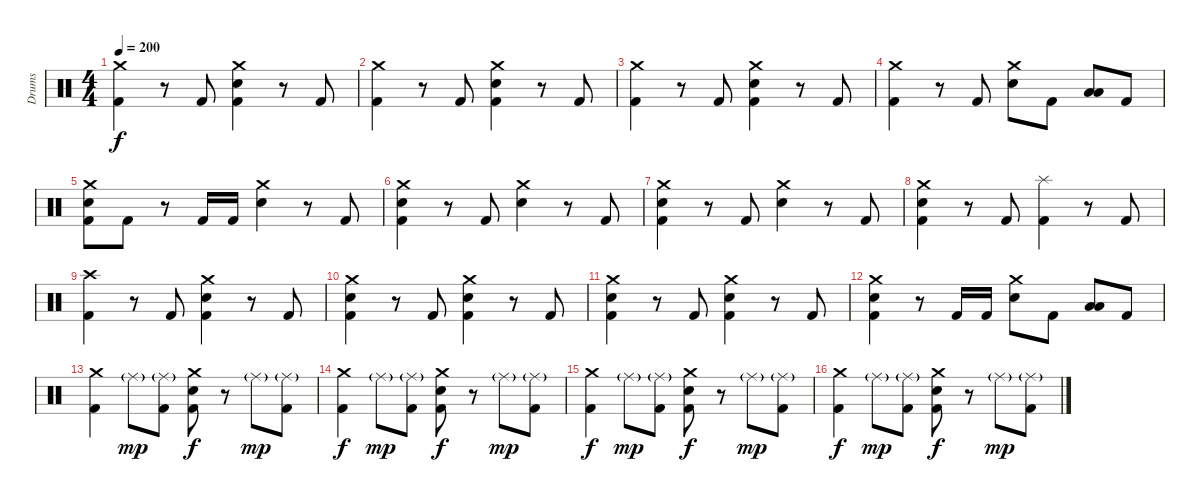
\track ("Drums" "Drums") {instrument percussion}
\staff {score}
\articulation defaults
\ts (4 4)
\tempo 200
\clef neutral
\ks c
("Crash medium (hit)" "Kick (hit) 2").4{dy f} r.8 "Kick (hit) 2".8 ("Crash medium (hit)" "Electric Snare (hit)" "Kick (hit) 2").4 r.8 "Kick (hit) 2".8 |
("Crash medium (hit)" "Kick (hit) 2").4 r.8 "Kick (hit) 2".8 ("Crash medium (hit)" "Electric Snare (hit)" "Kick (hit) 2").4 r.8 "Kick (hit) 2".8 |
("Crash medium (hit)" "Kick (hit) 2").4 r.8 "Kick (hit) 2".8 ("Crash medium (hit)" "Electric Snare (hit)" "Kick (hit) 2").4 r.8 "Kick (hit) 2".8 |
("Crash medium (hit)" "Kick (hit) 2").4 r.8 "Kick (hit) 2".8 ("Crash medium (hit)" "Electric Snare (hit)").8 "Kick (hit) 2".8 ("Low Tom (hit)" "Low Floor Tom (hit)").8 "Kick (hit) 2".8 |
("Crash medium (hit)" "Electric Snare (hit)" "Kick (hit) 2").8 "Kick (hit) 2".8 r.8 "Kick (hit) 2".16 "Kick (hit) 2".16 ("Crash medium (hit)" "Electric Snare (hit)").4 r.8 "Kick (hit) 2".8 |
("Crash medium (hit)" "Electric Snare (hit)" "Kick (hit) 2").4 r.8 "Kick (hit) 2".8 ("Crash medium (hit)" "Electric Snare (hit)").4 r.8 "Kick (hit) 2".8 |
("Crash medium (hit)" "Electric Snare (hit)" "Kick (hit) 2").4 r.8 "Kick (hit) 2".8 ("Crash medium (hit)" "Electric Snare (hit)").4 r.8 "Kick (hit) 2".8 |
("Crash medium (hit)" "Electric Snare (hit)" "Kick (hit) 2").4 r.8 "Kick (hit) 2".8 ("Splash (hit)" "Kick (hit) 2").4 r.8 "Kick (hit) 2".8 |
("Crash high (hit)" "Kick (hit) 2").4 r.8 "Kick (hit) 2".8 ("Crash medium (hit)" "Electric Snare (hit)" "Kick (hit) 2").4 r.8 "Kick (hit) 2".8 |
("Crash medium (hit)" "Electric Snare (hit)" "Kick (hit) 2").4 r.8 "Kick (hit) 2".8 ("Crash medium (hit)" "Electric Snare (hit)" "Kick (hit) 2").4 r.8 "Kick (hit) 2".8 |
("Crash medium (hit)" "Electric Snare (hit)" "Kick (hit) 2").4 r.8 "Kick (hit) 2".8 ("Crash medium (hit)" "Electric Snare (hit)" "Kick (hit) 2").4 r.8 "Kick (hit) 2".8 |
("Crash medium (hit)" "Electric Snare (hit)" "Kick (hit) 2").4 r.8 "Kick (hit) 2".16 "Kick (hit) 2".16 ("Crash medium (hit)" "Electric Snare (hit)").8 "Kick (hit) 2".8 ("Low Tom (hit)" "Low Floor Tom (hit)").8 "Kick (hit) 2".8 |
("Crash medium (hit)" "Kick (hit) 2").4 "Ride (middle)"{g}.8{dy mp} ("Ride (middle)"{g} "Kick (hit) 2").8 ("Crash medium (hit)" "Electric Snare (hit)" "Kick (hit) 2").8{dy f} r.8 "Ride (middle)"{g}.8{dy mp} ("Ride (middle)"{g} "Kick (hit) 2").8 |
("Crash medium (hit)" "Kick (hit) 2").4{dy f} "Ride (middle)"{g}.8{dy mp} ("Ride (middle)"{g} "Kick (hit) 2").8 ("Crash medium (hit)" "Electric Snare (hit)" "Kick (hit) 2").8{dy f} r.8 "Ride (middle)"{g}.8{dy mp} ("Ride (middle)"{g} "Kick (hit) 2").8 |
("Crash medium (hit)" "Kick (hit) 2").4{dy f} "Ride (middle)"{g}.8{dy mp} ("Ride (middle)"{g} "Kick (hit) 2").8 ("Crash medium (hit)" "Electric Snare (hit)" "Kick (hit) 2").8{dy f} r.8 "Ride (middle)"{g}.8{dy mp} ("Ride (middle)"{g} "Kick (hit) 2").8 |
("Crash medium (hit)" "Kick (hit) 2").4{dy f} "Ride (middle)"{g}.8{dy mp} ("Ride (middle)"{g} "Kick (hit) 2").8 ("Crash medium (hit)" "Electric Snare (hit)" "Kick (hit) 2").8{dy f} r.8 "Ride (middle)"{g}.8{dy mp} ("Ride (middle)"{g} "Kick (hit) 2").8
